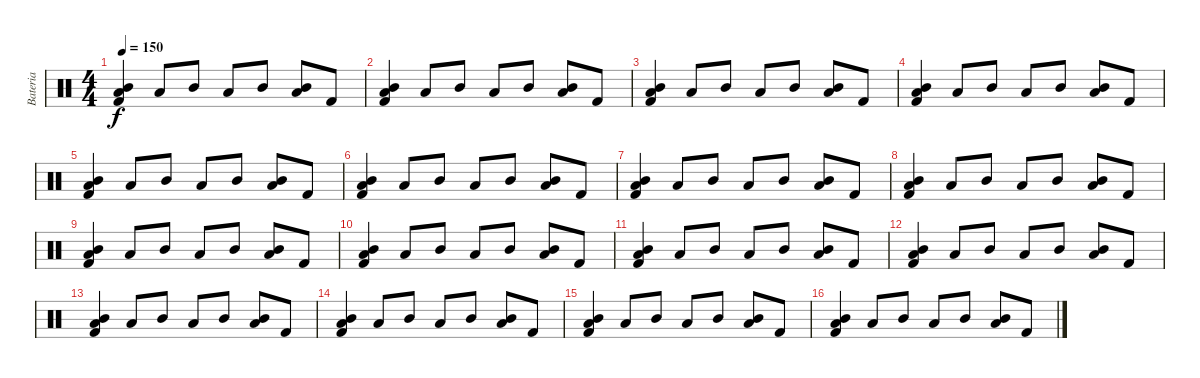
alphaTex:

\track ("Bateria" "Bateria") {instrument percussion}
\staff {score}
\articulation defaults
\ts (4 4)
\tempo 150
\clef neutral
\ks c
("Kick (hit) 2" "Low Tom (hit)" "Mid Tom (hit)").4{dy f} "Low Tom (hit)".8 "Mid Tom (hit)".8 "Low Tom (hit)".8 "Mid Tom (hit)".8 ("Low Tom (hit)" "Mid Tom (hit)").8 "Kick (hit) 2".8 |
("Kick (hit) 2" "Low Tom (hit)" "Mid Tom (hit)").4 "Low Tom (hit)".8 "Mid Tom (hit)".8 "Low Tom (hit)".8 "Mid Tom (hit)".8 ("Low Tom (hit)" "Mid Tom (hit)").8 "Kick (hit) 2".8 |
("Kick (hit) 2" "Low Tom (hit)" "Mid Tom (hit)").4 "Low Tom (hit)".8 "Mid Tom (hit)".8 "Low Tom (hit)".8 "Mid Tom (hit)".8 ("Low Tom (hit)" "Mid Tom (hit)").8 "Kick (hit) 2".8 |
("Kick (hit) 2" "Low Tom (hit)" "Mid Tom (hit)").4 "Low Tom (hit)".8 "Mid Tom (hit)".8 "Low Tom (hit)".8 "Mid Tom (hit)".8 ("Low Tom (hit)" "Mid Tom (hit)").8 "Kick (hit) 2".8 |
("Kick (hit) 2" "Low Tom (hit)" "Mid Tom (hit)").4 "Low Tom (hit)".8 "Mid Tom (hit)".8 "Low Tom (hit)".8 "Mid Tom (hit)".8 ("Low Tom (hit)" "Mid Tom (hit)").8 "Kick (hit) 2".8 |
("Kick (hit) 2" "Low Tom (hit)" "Mid Tom (hit)").4 "Low Tom (hit)".8 "Mid Tom (hit)".8 "Low Tom (hit)".8 "Mid Tom (hit)".8 ("Low Tom (hit)" "Mid Tom (hit)").8 "Kick (hit) 2".8 |
("Kick (hit) 2" "Low Tom (hit)" "Mid Tom (hit)").4 "Low Tom (hit)".8 "Mid Tom (hit)".8 "Low Tom (hit)".8 "Mid Tom (hit)".8 ("Low Tom (hit)" "Mid Tom (hit)").8 "Kick (hit) 2".8 |
("Kick (hit) 2" "Low Tom (hit)" "Mid Tom (hit)").4 "Low Tom (hit)".8 "Mid Tom (hit)".8 "Low Tom (hit)".8 "Mid Tom (hit)".8 ("Low Tom (hit)" "Mid Tom (hit)").8 "Kick (hit) 2".8 |
("Kick (hit) 2" "Low Tom (hit)" "Mid Tom (hit)").4 "Low Tom (hit)".8 "Mid Tom (hit)".8 "Low Tom (hit)".8 "Mid Tom (hit)".8 ("Low Tom (hit)" "Mid Tom (hit)").8 "Kick (hit) 2".8 |
("Kick (hit) 2" "Low Tom (hit)" "Mid Tom (hit)").4 "Low Tom (hit)".8 "Mid Tom (hit)".8 "Low Tom (hit)".8 "Mid Tom (hit)".8 ("Low Tom (hit)" "Mid Tom (hit)").8 "Kick (hit) 2".8 |
("Kick (hit) 2" "Low Tom (hit)" "Mid Tom (hit)").4 "Low Tom (hit)".8 "Mid Tom (hit)".8 "Low Tom (hit)".8 "Mid Tom (hit)".8 ("Low Tom (hit)" "Mid Tom (hit)").8 "Kick (hit) 2".8 |
("Kick (hit) 2" "Low Tom (hit)" "Mid Tom (hit)").4 "Low Tom (hit)".8 "Mid Tom (hit)".8 "Low Tom (hit)".8 "Mid Tom (hit)".8 ("Low Tom (hit)" "Mid Tom (hit)").8 "Kick (hit) 2".8 |
("Kick (hit) 2" "Low Tom (hit)" "Mid Tom (hit)").4 "Low Tom (hit)".8 "Mid Tom (hit)".8 "Low Tom (hit)".8 "Mid Tom (hit)".8 ("Low Tom (hit)" "Mid Tom (hit)").8 "Kick (hit) 2".8 |
("Kick (hit) 2" "Low Tom (hit)" "Mid Tom (hit)").4 "Low Tom (hit)".8 "Mid Tom (hit)".8 "Low Tom (hit)".8 "Mid Tom (hit)".8 ("Low Tom (hit)" "Mid Tom (hit)").8 "Kick (hit) 2".8 |
("Kick (hit) 2" "Low Tom (hit)" "Mid Tom (hit)").4 "Low Tom (hit)".8 "Mid Tom (hit)".8 "Low Tom (hit)".8 "Mid Tom (hit)".8 ("Low Tom (hit)" "Mid Tom (hit)").8 "Kick (hit) 2".8 |
("Kick (hit) 2" "Low Tom (hit)" "Mid Tom (hit)").4 "Low Tom (hit)".8 "Mid Tom (hit)".8 "Low Tom (hit)".8 "Mid Tom (hit)".8 ("Low Tom (hit)" "Mid Tom (hit)").8 "Kick (hit) 2".8
